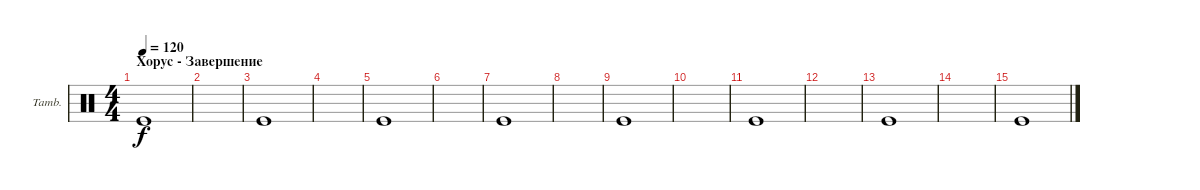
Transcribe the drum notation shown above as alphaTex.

\defaultSystemsLayout 4
\bracketExtendMode groupsimilarinstruments
\firstSystemTrackNameOrientation horizontal
\otherSystemsTrackNameOrientation horizontal
\track ("Tambourine" "Tamb.") {instrument percussion}
\staff {score}
\articulation defaults
\ts (4 4)
\section ("" "Хорус - Завершение")
\tempo 120
\clef neutral
\ks c "Kick (hit)".1{dy f}
|
|
"Kick (hit)".1 |
|
"Kick (hit)".1 |
|
"Kick (hit)".1 |
|
"Kick (hit)".1 |
|
"Kick (hit)".1 |
|
"Kick (hit)".1 |
|
"Kick (hit)".1
